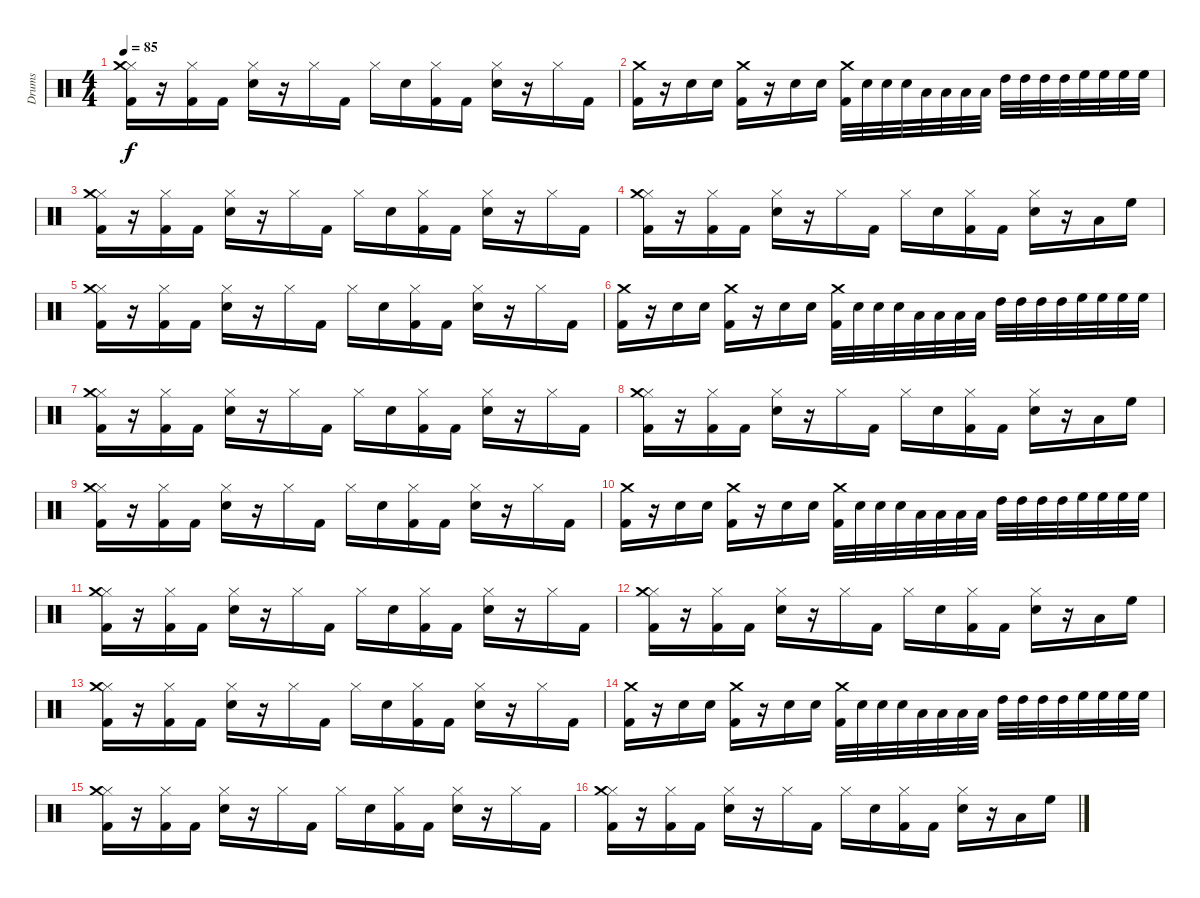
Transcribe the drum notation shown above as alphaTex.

\track ("Drums" "Drums") {instrument percussion}
\staff {score}
\articulation defaults
\ts (4 4)
\tempo 85
\clef neutral
\ks c
("Hi-Hat (closed)" "Kick (hit) 2" "Crash medium (hit)").16{dy f} r.16 ("Hi-Hat (closed)" "Kick (hit) 2").16 "Kick (hit) 2".16 ("Hi-Hat (closed)" "Snare (hit) 2").16 r.16 "Hi-Hat (closed)".16 "Kick (hit) 2".16 "Hi-Hat (closed)".16 "Snare (hit) 2".16 ("Hi-Hat (closed)" "Kick (hit) 2").16 "Kick (hit) 2".16 ("Hi-Hat (closed)" "Snare (hit) 2").16 r.16 "Hi-Hat (closed)".16 "Kick (hit) 2".16 |
("Kick (hit) 2" "Crash medium (hit)").16 r.16 "Snare (hit) 2".16 "Snare (hit) 2".16 ("Kick (hit) 2" "Crash medium (hit)").16 r.16 "Snare (hit) 2".16 "Snare (hit) 2".16 ("Kick (hit) 2" "Crash medium (hit)").32 "Snare (hit) 2".32 "Snare (hit) 2".32 "Snare (hit) 2".32 "Low Tom (hit)".32 "Low Tom (hit)".32 "Low Tom (hit)".32 "Low Tom (hit)".32 "High Tom (hit)".32 "High Tom (hit)".32 "High Tom (hit)".32 "High Tom (hit)".32 "High Floor Tom (hit)".32 "High Floor Tom (hit)".32 "High Floor Tom (hit)".32 "High Floor Tom (hit)".32 |
("Hi-Hat (closed)" "Kick (hit) 2" "Crash medium (hit)").16 r.16 ("Hi-Hat (closed)" "Kick (hit) 2").16 "Kick (hit) 2".16 ("Hi-Hat (closed)" "Snare (hit) 2").16 r.16 "Hi-Hat (closed)".16 "Kick (hit) 2".16 "Hi-Hat (closed)".16 "Snare (hit) 2".16 ("Hi-Hat (closed)" "Kick (hit) 2").16 "Kick (hit) 2".16 ("Hi-Hat (closed)" "Snare (hit) 2").16 r.16 "Hi-Hat (closed)".16 "Kick (hit) 2".16 |
("Hi-Hat (closed)" "Kick (hit) 2" "Crash medium (hit)").16 r.16 ("Hi-Hat (closed)" "Kick (hit) 2").16 "Kick (hit) 2".16 ("Hi-Hat (closed)" "Snare (hit) 2").16 r.16 "Hi-Hat (closed)".16 "Kick (hit) 2".16 "Hi-Hat (closed)".16 "Snare (hit) 2".16 ("Hi-Hat (closed)" "Kick (hit) 2").16 "Kick (hit) 2".16 ("Hi-Hat (closed)" "Snare (hit) 2").16 r.16 "Low Tom (hit)".16 "High Floor Tom (hit)".16 |
("Hi-Hat (closed)" "Kick (hit) 2" "Crash medium (hit)").16 r.16 ("Hi-Hat (closed)" "Kick (hit) 2").16 "Kick (hit) 2".16 ("Hi-Hat (closed)" "Snare (hit) 2").16 r.16 "Hi-Hat (closed)".16 "Kick (hit) 2".16 "Hi-Hat (closed)".16 "Snare (hit) 2".16 ("Hi-Hat (closed)" "Kick (hit) 2").16 "Kick (hit) 2".16 ("Hi-Hat (closed)" "Snare (hit) 2").16 r.16 "Hi-Hat (closed)".16 "Kick (hit) 2".16 |
("Kick (hit) 2" "Crash medium (hit)").16 r.16 "Snare (hit) 2".16 "Snare (hit) 2".16 ("Kick (hit) 2" "Crash medium (hit)").16 r.16 "Snare (hit) 2".16 "Snare (hit) 2".16 ("Kick (hit) 2" "Crash medium (hit)").32 "Snare (hit) 2".32 "Snare (hit) 2".32 "Snare (hit) 2".32 "Low Tom (hit)".32 "Low Tom (hit)".32 "Low Tom (hit)".32 "Low Tom (hit)".32 "High Tom (hit)".32 "High Tom (hit)".32 "High Tom (hit)".32 "High Tom (hit)".32 "High Floor Tom (hit)".32 "High Floor Tom (hit)".32 "High Floor Tom (hit)".32 "High Floor Tom (hit)".32 |
("Hi-Hat (closed)" "Kick (hit) 2" "Crash medium (hit)").16 r.16 ("Hi-Hat (closed)" "Kick (hit) 2").16 "Kick (hit) 2".16 ("Hi-Hat (closed)" "Snare (hit) 2").16 r.16 "Hi-Hat (closed)".16 "Kick (hit) 2".16 "Hi-Hat (closed)".16 "Snare (hit) 2".16 ("Hi-Hat (closed)" "Kick (hit) 2").16 "Kick (hit) 2".16 ("Hi-Hat (closed)" "Snare (hit) 2").16 r.16 "Hi-Hat (closed)".16 "Kick (hit) 2".16 |
("Hi-Hat (closed)" "Kick (hit) 2" "Crash medium (hit)").16 r.16 ("Hi-Hat (closed)" "Kick (hit) 2").16 "Kick (hit) 2".16 ("Hi-Hat (closed)" "Snare (hit) 2").16 r.16 "Hi-Hat (closed)".16 "Kick (hit) 2".16 "Hi-Hat (closed)".16 "Snare (hit) 2".16 ("Hi-Hat (closed)" "Kick (hit) 2").16 "Kick (hit) 2".16 ("Hi-Hat (closed)" "Snare (hit) 2").16 r.16 "Low Tom (hit)".16 "High Floor Tom (hit)".16 |
("Hi-Hat (closed)" "Kick (hit) 2" "Crash medium (hit)").16 r.16 ("Hi-Hat (closed)" "Kick (hit) 2").16 "Kick (hit) 2".16 ("Hi-Hat (closed)" "Snare (hit) 2").16 r.16 "Hi-Hat (closed)".16 "Kick (hit) 2".16 "Hi-Hat (closed)".16 "Snare (hit) 2".16 ("Hi-Hat (closed)" "Kick (hit) 2").16 "Kick (hit) 2".16 ("Hi-Hat (closed)" "Snare (hit) 2").16 r.16 "Hi-Hat (closed)".16 "Kick (hit) 2".16 |
("Kick (hit) 2" "Crash medium (hit)").16 r.16 "Snare (hit) 2".16 "Snare (hit) 2".16 ("Kick (hit) 2" "Crash medium (hit)").16 r.16 "Snare (hit) 2".16 "Snare (hit) 2".16 ("Kick (hit) 2" "Crash medium (hit)").32 "Snare (hit) 2".32 "Snare (hit) 2".32 "Snare (hit) 2".32 "Low Tom (hit)".32 "Low Tom (hit)".32 "Low Tom (hit)".32 "Low Tom (hit)".32 "High Tom (hit)".32 "High Tom (hit)".32 "High Tom (hit)".32 "High Tom (hit)".32 "High Floor Tom (hit)".32 "High Floor Tom (hit)".32 "High Floor Tom (hit)".32 "High Floor Tom (hit)".32 |
("Hi-Hat (closed)" "Kick (hit) 2" "Crash medium (hit)").16 r.16 ("Hi-Hat (closed)" "Kick (hit) 2").16 "Kick (hit) 2".16 ("Hi-Hat (closed)" "Snare (hit) 2").16 r.16 "Hi-Hat (closed)".16 "Kick (hit) 2".16 "Hi-Hat (closed)".16 "Snare (hit) 2".16 ("Hi-Hat (closed)" "Kick (hit) 2").16 "Kick (hit) 2".16 ("Hi-Hat (closed)" "Snare (hit) 2").16 r.16 "Hi-Hat (closed)".16 "Kick (hit) 2".16 |
("Hi-Hat (closed)" "Kick (hit) 2" "Crash medium (hit)").16 r.16 ("Hi-Hat (closed)" "Kick (hit) 2").16 "Kick (hit) 2".16 ("Hi-Hat (closed)" "Snare (hit) 2").16 r.16 "Hi-Hat (closed)".16 "Kick (hit) 2".16 "Hi-Hat (closed)".16 "Snare (hit) 2".16 ("Hi-Hat (closed)" "Kick (hit) 2").16 "Kick (hit) 2".16 ("Hi-Hat (closed)" "Snare (hit) 2").16 r.16 "Low Tom (hit)".16 "High Floor Tom (hit)".16 |
("Hi-Hat (closed)" "Kick (hit) 2" "Crash medium (hit)").16 r.16 ("Hi-Hat (closed)" "Kick (hit) 2").16 "Kick (hit) 2".16 ("Hi-Hat (closed)" "Snare (hit) 2").16 r.16 "Hi-Hat (closed)".16 "Kick (hit) 2".16 "Hi-Hat (closed)".16 "Snare (hit) 2".16 ("Hi-Hat (closed)" "Kick (hit) 2").16 "Kick (hit) 2".16 ("Hi-Hat (closed)" "Snare (hit) 2").16 r.16 "Hi-Hat (closed)".16 "Kick (hit) 2".16 |
("Kick (hit) 2" "Crash medium (hit)").16 r.16 "Snare (hit) 2".16 "Snare (hit) 2".16 ("Kick (hit) 2" "Crash medium (hit)").16 r.16 "Snare (hit) 2".16 "Snare (hit) 2".16 ("Kick (hit) 2" "Crash medium (hit)").32 "Snare (hit) 2".32 "Snare (hit) 2".32 "Snare (hit) 2".32 "Low Tom (hit)".32 "Low Tom (hit)".32 "Low Tom (hit)".32 "Low Tom (hit)".32 "High Tom (hit)".32 "High Tom (hit)".32 "High Tom (hit)".32 "High Tom (hit)".32 "High Floor Tom (hit)".32 "High Floor Tom (hit)".32 "High Floor Tom (hit)".32 "High Floor Tom (hit)".32 |
("Hi-Hat (closed)" "Kick (hit) 2" "Crash medium (hit)").16 r.16 ("Hi-Hat (closed)" "Kick (hit) 2").16 "Kick (hit) 2".16 ("Hi-Hat (closed)" "Snare (hit) 2").16 r.16 "Hi-Hat (closed)".16 "Kick (hit) 2".16 "Hi-Hat (closed)".16 "Snare (hit) 2".16 ("Hi-Hat (closed)" "Kick (hit) 2").16 "Kick (hit) 2".16 ("Hi-Hat (closed)" "Snare (hit) 2").16 r.16 "Hi-Hat (closed)".16 "Kick (hit) 2".16 |
("Hi-Hat (closed)" "Kick (hit) 2" "Crash medium (hit)").16 r.16 ("Hi-Hat (closed)" "Kick (hit) 2").16 "Kick (hit) 2".16 ("Hi-Hat (closed)" "Snare (hit) 2").16 r.16 "Hi-Hat (closed)".16 "Kick (hit) 2".16 "Hi-Hat (closed)".16 "Snare (hit) 2".16 ("Hi-Hat (closed)" "Kick (hit) 2").16 "Kick (hit) 2".16 ("Hi-Hat (closed)" "Snare (hit) 2").16 r.16 "Low Tom (hit)".16 "High Floor Tom (hit)".16
